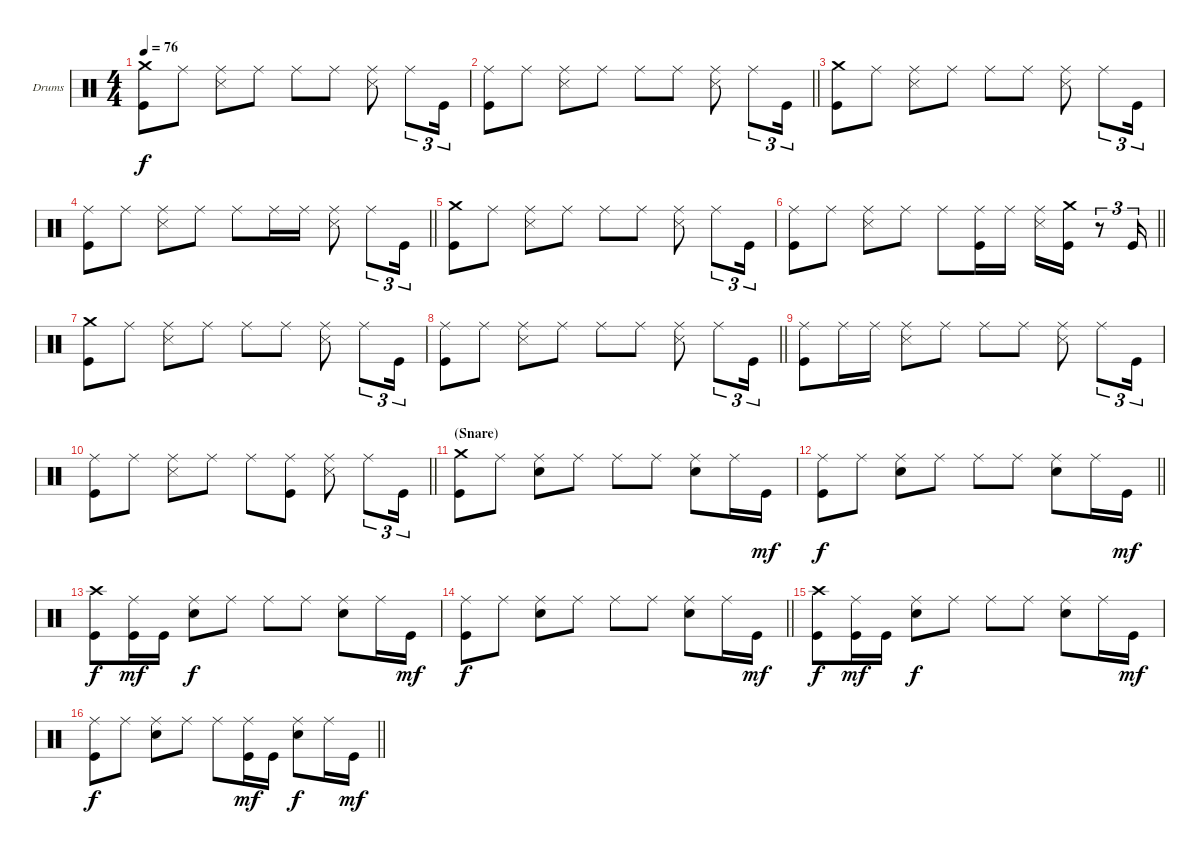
\bracketExtendMode groupsimilarinstruments
\firstSystemTrackNameOrientation horizontal
\otherSystemsTrackNameOrientation horizontal
\track ("Drumkit" "Drums") {instrument percussion}
\staff {score}
\articulation defaults
\ts (4 4)
\tempo 76
\clef neutral
\ks c
("Crash medium (hit)" "Kick (hit)").8{dy f} "Ride (middle)".8 ("Ride (middle)" "Snare (side stick) 3").8 "Ride (middle)".8 "Ride (middle)".8 "Ride (middle)".8 ("Ride (middle)" "Snare (side stick) 3").8 "Ride (middle)".8{tu (3 2)} "Kick (hit)".16{tu (3 2)} |
\barLineRight lightlight
("Ride (middle)" "Kick (hit)").8 "Ride (middle)".8 ("Ride (middle)" "Snare (side stick) 3").8 "Ride (middle)".8 "Ride (middle)".8 "Ride (middle)".8 ("Ride (middle)" "Snare (side stick) 3").8 "Ride (middle)".8{tu (3 2)} "Kick (hit)".16{tu (3 2)} |
("Crash medium (hit)" "Kick (hit)").8 "Ride (middle)".8 ("Ride (middle)" "Snare (side stick) 3").8 "Ride (middle)".8 "Ride (middle)".8 "Ride (middle)".8 ("Ride (middle)" "Snare (side stick) 3").8 "Ride (middle)".8{tu (3 2)} "Kick (hit)".16{tu (3 2)} |
\barLineRight lightlight
("Ride (middle)" "Kick (hit)").8 "Ride (middle)".8 ("Ride (middle)" "Snare (side stick) 3").8 "Ride (middle)".8 "Ride (middle)".8 "Ride (middle)".16 "Ride (middle)".16 ("Ride (middle)" "Snare (side stick) 3").8 "Ride (middle)".8{tu (3 2)} "Kick (hit)".16{tu (3 2)} |
("Crash medium (hit)" "Kick (hit)").8 "Ride (middle)".8 ("Ride (middle)" "Snare (side stick) 3").8 "Ride (middle)".8 "Ride (middle)".8 "Ride (middle)".8 ("Ride (middle)" "Snare (side stick) 3").8 "Ride (middle)".8{tu (3 2)} "Kick (hit)".16{tu (3 2)} |
\barLineRight lightlight
("Ride (middle)" "Kick (hit)").8 "Ride (middle)".8 ("Ride (middle)" "Snare (side stick) 3").8 "Ride (middle)".8 "Ride (middle)".8 ("Ride (middle)" "Kick (hit)").16 "Ride (middle)".16 ("Ride (middle)" "Snare (side stick) 3").16 ("Crash medium (hit)" "Kick (hit)").16 r.8{tu (3 2)} "Kick (hit)".16{tu (3 2)} |
("Crash medium (hit)" "Kick (hit)").8 "Ride (middle)".8 ("Ride (middle)" "Snare (side stick) 3").8 "Ride (middle)".8 "Ride (middle)".8 "Ride (middle)".8 ("Ride (middle)" "Snare (side stick) 3").8 "Ride (middle)".8{tu (3 2)} "Kick (hit)".16{tu (3 2)} |
\barLineRight lightlight
("Ride (middle)" "Kick (hit)").8 "Ride (middle)".8 ("Ride (middle)" "Snare (side stick) 3").8 "Ride (middle)".8 "Ride (middle)".8 "Ride (middle)".8 ("Ride (middle)" "Snare (side stick) 3").8 "Ride (middle)".8{tu (3 2)} "Kick (hit)".16{tu (3 2)} |
("Ride (middle)" "Kick (hit)").8 "Ride (middle)".16 "Ride (middle)".16 ("Ride (middle)" "Snare (side stick) 3").8 "Ride (middle)".8 "Ride (middle)".8 "Ride (middle)".8 ("Ride (middle)" "Snare (side stick) 3").8 "Ride (middle)".8{tu (3 2)} "Kick (hit)".16{tu (3 2)} |
\barLineRight lightlight
("Ride (middle)" "Kick (hit)").8 "Ride (middle)".8 ("Ride (middle)" "Snare (side stick) 3").8 "Ride (middle)".8 "Ride (middle)".8 ("Ride (middle)" "Kick (hit)").8 ("Ride (middle)" "Snare (side stick) 3").8 "Ride (middle)".8{tu (3 2)} "Kick (hit)".16{tu (3 2)} |
\section ("" "(Snare)")
("Crash medium (hit)" "Kick (hit)").8 "Ride (middle)".8 ("Ride (middle)" "Snare (hit) 2").8 "Ride (middle)".8 "Ride (middle)".8 "Ride (middle)".8 ("Ride (middle)" "Snare (hit) 2").8 "Ride (middle)".16 "Kick (hit)".16{dy mf} |
\barLineRight lightlight
("Ride (middle)" "Kick (hit)").8{dy f} "Ride (middle)".8 ("Ride (middle)" "Snare (hit) 2").8 "Ride (middle)".8 "Ride (middle)".8 "Ride (middle)".8 ("Ride (middle)" "Snare (hit) 2").8 "Ride (middle)".16 "Kick (hit)".16{dy mf} |
("Crash high (hit)" "Kick (hit)").8{dy f} ("Ride (middle)" "Kick (hit)").16{dy mf} "Kick (hit)".16 ("Ride (middle)" "Snare (hit) 2").8{dy f} "Ride (middle)".8 "Ride (middle)".8 "Ride (middle)".8 ("Ride (middle)" "Snare (hit) 2").8 "Ride (middle)".16 "Kick (hit)".16{dy mf} |
\barLineRight lightlight
("Ride (middle)" "Kick (hit)").8{dy f} "Ride (middle)".8 ("Ride (middle)" "Snare (hit) 2").8 "Ride (middle)".8 "Ride (middle)".8 "Ride (middle)".8 ("Ride (middle)" "Snare (hit) 2").8 "Ride (middle)".16 "Kick (hit)".16{dy mf} |
("Crash high (hit)" "Kick (hit)").8{dy f} ("Ride (middle)" "Kick (hit)").16{dy mf} "Kick (hit)".16 ("Ride (middle)" "Snare (hit) 2").8{dy f} "Ride (middle)".8 "Ride (middle)".8 "Ride (middle)".8 ("Ride (middle)" "Snare (hit) 2").8 "Ride (middle)".16 "Kick (hit)".16{dy mf} |
\barLineRight lightlight
("Ride (middle)" "Kick (hit)").8{dy f} "Ride (middle)".8 ("Ride (middle)" "Snare (hit) 2").8 "Ride (middle)".8 "Ride (middle)".8 ("Ride (middle)" "Kick (hit)").16{dy mf} "Kick (hit)".16 ("Ride (middle)" "Snare (hit) 2").8{dy f} "Ride (middle)".16 "Kick (hit)".16{dy mf}
